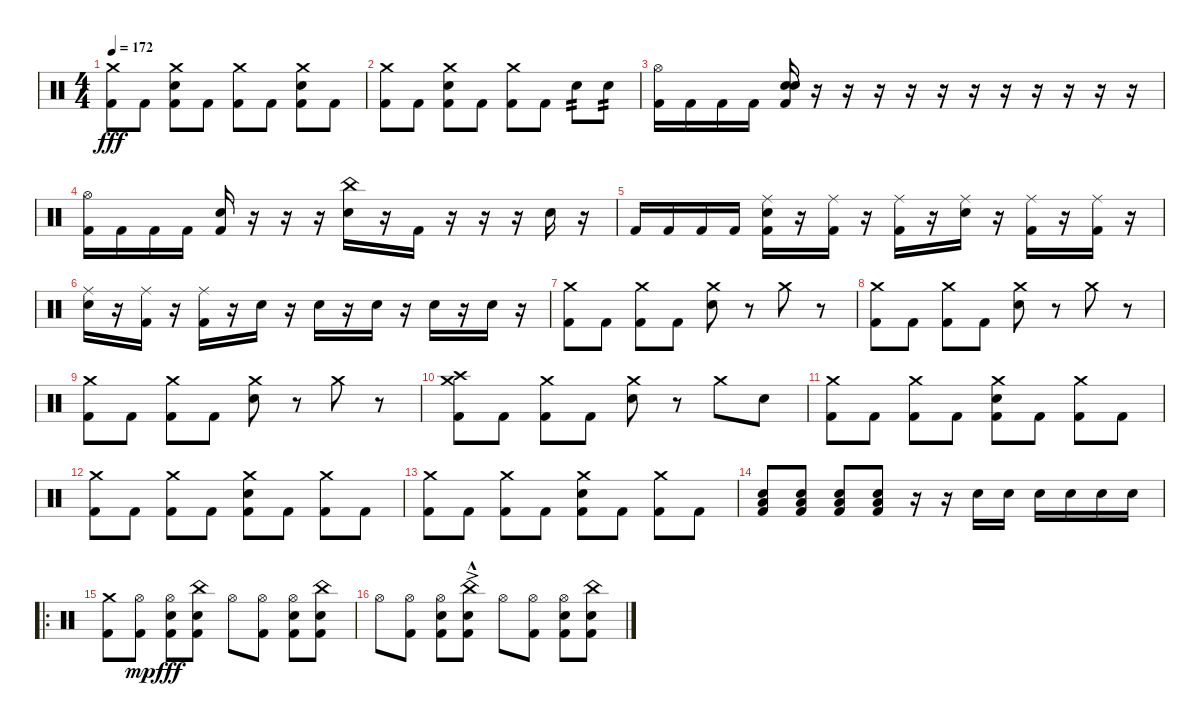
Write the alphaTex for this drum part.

\track (" " " ") {instrument percussion}
\staff {score}
\articulation defaults
\ts (4 4)
\tempo 172
\clef neutral
\ks c
("Crash medium (hit)" "Kick (hit) 2").8{dy fff} "Kick (hit) 2".8 ("Crash medium (hit)" "Snare (hit) 2" "Kick (hit) 2").8 "Kick (hit) 2".8 ("Crash medium (hit)" "Kick (hit) 2").8 "Kick (hit) 2".8 ("Crash medium (hit)" "Snare (hit) 2" "Kick (hit) 2").8 "Kick (hit) 2".8 |
("Crash medium (hit)" "Kick (hit) 2").8 "Kick (hit) 2".8 ("Crash medium (hit)" "Snare (hit) 2" "Kick (hit) 2").8 "Kick (hit) 2".8 ("Crash medium (hit)" "Kick (hit) 2").8 "Kick (hit) 2".8 "Snare (hit) 2".8{tp 2} "Snare (hit) 2".8{tp 2} |
("Hi-Hat (open)" "Kick (hit) 2").16 "Kick (hit) 2".16 "Kick (hit) 2".16 "Kick (hit) 2".16 ("Snare (hit) 2" "Snare (hit) 2" "Kick (hit) 2").16 r.16 r.16 r.16 r.16 r.16 r.16 r.16 r.16 r.16 r.16 r.16 |
("Hi-Hat (open)" "Kick (hit) 2").16 "Kick (hit) 2".16 "Kick (hit) 2".16 "Kick (hit) 2".16 ("Snare (hit) 2" "Kick (hit) 2").16 r.16 r.16 r.16 ("China (hit)" "Snare (hit) 2").16 r.16 "Kick (hit) 2".16 r.16 r.16 r.16 "Snare (hit) 2".16 r.16 |
"Kick (hit) 2".16 "Kick (hit) 2".16 "Kick (hit) 2".16 "Kick (hit) 2".16 ("Ride (middle)" "Snare (hit) 2" "Kick (hit) 2").16 r.16 ("Ride (middle)" "Kick (hit) 2").16 r.16 ("Ride (middle)" "Kick (hit) 2").16 r.16 ("Ride (middle)" "Snare (hit) 2").16 r.16 ("Ride (middle)" "Kick (hit) 2").16 r.16 ("Ride (middle)" "Kick (hit) 2").16 r.16 |
("Ride (middle)" "Snare (hit) 2").16 r.16 ("Ride (middle)" "Kick (hit) 2").16 r.16 ("Ride (middle)" "Kick (hit) 2").16 r.16 "Snare (hit) 2".16 r.16 "Snare (hit) 2".16 r.16 "Snare (hit) 2".16 r.16 "Snare (hit) 2".16 r.16 "Snare (hit) 2".16 r.16 |
("Crash medium (hit)" "Kick (hit) 2").8 "Kick (hit) 2".8 ("Crash medium (hit)" "Kick (hit) 2").8 "Kick (hit) 2".8 ("Crash medium (hit)" "Snare (hit) 2").8 r.8 "Crash medium (hit)".8 r.8 |
("Crash medium (hit)" "Kick (hit) 2").8 "Kick (hit) 2".8 ("Crash medium (hit)" "Kick (hit) 2").8 "Kick (hit) 2".8 ("Crash medium (hit)" "Snare (hit) 2").8 r.8 "Crash medium (hit)".8 r.8 |
("Crash medium (hit)" "Kick (hit) 2").8 "Kick (hit) 2".8 ("Crash medium (hit)" "Kick (hit) 2").8 "Kick (hit) 2".8 ("Crash medium (hit)" "Snare (hit) 2").8 r.8 "Crash medium (hit)".8 r.8 |
("Crash medium (hit)" "Crash high (hit)" "Kick (hit) 2").8 "Kick (hit) 2".8 ("Crash medium (hit)" "Kick (hit) 2").8 "Kick (hit) 2".8 ("Crash medium (hit)" "Snare (hit) 2").8 r.8 "Crash medium (hit)".8 "Snare (hit) 2".8 |
("Crash medium (hit)" "Kick (hit) 2").8 "Kick (hit) 2".8 ("Crash medium (hit)" "Kick (hit) 2").8 "Kick (hit) 2".8 ("Crash medium (hit)" "Snare (hit) 2" "Kick (hit) 2").8 "Kick (hit) 2".8 ("Crash medium (hit)" "Kick (hit) 2").8 "Kick (hit) 2".8 |
("Crash medium (hit)" "Kick (hit) 2").8 "Kick (hit) 2".8 ("Crash medium (hit)" "Kick (hit) 2").8 "Kick (hit) 2".8 ("Crash medium (hit)" "Snare (hit) 2" "Kick (hit) 2").8 "Kick (hit) 2".8 ("Crash medium (hit)" "Kick (hit) 2").8 "Kick (hit) 2".8 |
("Crash medium (hit)" "Kick (hit) 2").8 "Kick (hit) 2".8 ("Crash medium (hit)" "Kick (hit) 2").8 "Kick (hit) 2".8 ("Crash medium (hit)" "Snare (hit) 2" "Kick (hit) 2").8 "Kick (hit) 2".8 ("Crash medium (hit)" "Kick (hit) 2").8 "Kick (hit) 2".8 |
("Snare (hit) 2" "Low Floor Tom (hit)" "Kick (hit) 2").8 ("Snare (hit) 2" "Low Floor Tom (hit)" "Kick (hit) 2").8 ("Snare (hit) 2" "Low Floor Tom (hit)" "Kick (hit) 2").8 ("Snare (hit) 2" "Low Floor Tom (hit)" "Kick (hit) 2").8 r.16 r.16 "Snare (hit) 2".16 "Snare (hit) 2".16 "Snare (hit) 2".16 "Snare (hit) 2".16 "Snare (hit) 2".16 "Snare (hit) 2".16 |
\ro
("Crash medium (hit)" "Kick (hit) 2").8 ("Hi-Hat (open)" "Kick (hit) 2").8{dy mp} ("Hi-Hat (open)" "Snare (hit) 2" "Kick (hit) 2").8{dy fff} ("China (hit)" "Snare (hit) 2" "Kick (hit) 2").8 "Hi-Hat (open)".8 ("Hi-Hat (open)" "Kick (hit) 2").8 ("Hi-Hat (open)" "Snare (hit) 2" "Kick (hit) 2").8 ("China (hit)" "Snare (hit) 2" "Kick (hit) 2").8 |
"Hi-Hat (open)".8 ("Hi-Hat (open)" "Kick (hit) 2").8 ("Hi-Hat (open)" "Snare (hit) 2" "Kick (hit) 2").8 ("China (hit)"{ac} "Snare (hit) 2"{hac} "Kick (hit) 2").8 "Hi-Hat (open)".8 ("Hi-Hat (open)" "Kick (hit) 2").8 ("Hi-Hat (open)" "Snare (hit) 2" "Kick (hit) 2").8 ("China (hit)" "Snare (hit) 2" "Kick (hit) 2").8
